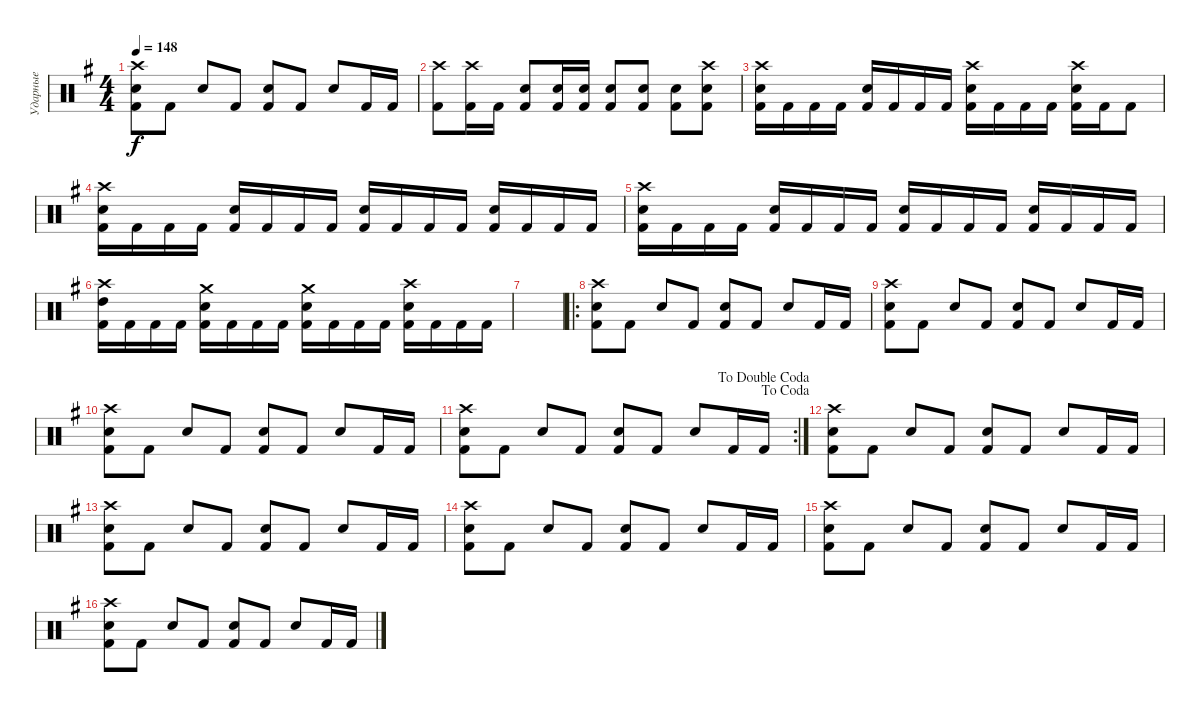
\track ("Ударные" "Ударные") {instrument percussion}
\staff {score}
\articulation defaults
\ts (4 4)
\tempo 148
\clef neutral
\ks g
("Crash high (hit)" "Snare (hit) 2" "Kick (hit) 2").8{dy f} "Kick (hit) 2".8 "Snare (hit) 2".8 "Kick (hit) 2".8 ("Snare (hit) 2" "Kick (hit) 2").8 "Kick (hit) 2".8 "Snare (hit) 2".8 "Kick (hit) 2".16 "Kick (hit) 2".16 |
("Crash high (hit)" "Kick (hit) 2").8 ("Crash high (hit)" "Kick (hit) 2").16 "Kick (hit) 2".16 ("Snare (hit) 2" "Kick (hit) 2").8 ("Snare (hit) 2" "Kick (hit) 2").16 ("Snare (hit) 2" "Kick (hit) 2").16 ("Snare (hit) 2" "Kick (hit) 2").8 ("Snare (hit) 2" "Kick (hit) 2").8 ("Snare (hit) 2" "Kick (hit) 2").8 ("Crash high (hit)" "Snare (hit) 2" "Kick (hit) 2").8 |
("Crash high (hit)" "Snare (hit) 2" "Kick (hit) 2").16 "Kick (hit) 2".16 "Kick (hit) 2".16 "Kick (hit) 2".16 ("Snare (hit) 2" "Kick (hit) 2").16 "Kick (hit) 2".16 "Kick (hit) 2".16 "Kick (hit) 2".16 ("Crash high (hit)" "Snare (hit) 2" "Kick (hit) 2").16 "Kick (hit) 2".16 "Kick (hit) 2".16 "Kick (hit) 2".16 ("Crash high (hit)" "Snare (hit) 2" "Kick (hit) 2").16 "Kick (hit) 2".16 "Kick (hit) 2".8 |
("Crash high (hit)" "Snare (hit) 2" "Kick (hit) 2").16 "Kick (hit) 2".16 "Kick (hit) 2".16 "Kick (hit) 2".16 ("Snare (hit) 2" "Kick (hit) 2").16 "Kick (hit) 2".16 "Kick (hit) 2".16 "Kick (hit) 2".16 ("Snare (hit) 2" "Kick (hit) 2").16 "Kick (hit) 2".16 "Kick (hit) 2".16 "Kick (hit) 2".16 ("Snare (hit) 2" "Kick (hit) 2").16 "Kick (hit) 2".16 "Kick (hit) 2".16 "Kick (hit) 2".16 |
("Crash high (hit)" "Snare (hit) 2" "Kick (hit) 2").16 "Kick (hit) 2".16 "Kick (hit) 2".16 "Kick (hit) 2".16 ("Snare (hit) 2" "Kick (hit) 2").16 "Kick (hit) 2".16 "Kick (hit) 2".16 "Kick (hit) 2".16 ("Snare (hit) 2" "Kick (hit) 2").16 "Kick (hit) 2".16 "Kick (hit) 2".16 "Kick (hit) 2".16 ("Snare (hit) 2" "Kick (hit) 2").16 "Kick (hit) 2".16 "Kick (hit) 2".16 "Kick (hit) 2".16 |
("Crash high (hit)" "High Tom (hit)" "Kick (hit) 2").16 "Kick (hit) 2".16 "Kick (hit) 2".16 "Kick (hit) 2".16 ("Crash medium (hit)" "Snare (hit) 2" "Kick (hit) 2").16 "Kick (hit) 2".16 "Kick (hit) 2".16 "Kick (hit) 2".16 ("Crash medium (hit)" "Snare (hit) 2" "Kick (hit) 2").16 "Kick (hit) 2".16 "Kick (hit) 2".16 "Kick (hit) 2".16 ("Crash high (hit)" "Snare (hit) 2" "Kick (hit) 2").16 "Kick (hit) 2".16 "Kick (hit) 2".16 "Kick (hit) 2".16 |
|
\ro
("Crash high (hit)" "Snare (hit) 2" "Kick (hit) 2").8 "Kick (hit) 2".8 "Snare (hit) 2".8 "Kick (hit) 2".8 ("Snare (hit) 2" "Kick (hit) 2").8 "Kick (hit) 2".8 "Snare (hit) 2".8 "Kick (hit) 2".16 "Kick (hit) 2".16 |
("Crash high (hit)" "Snare (hit) 2" "Kick (hit) 2").8 "Kick (hit) 2".8 "Snare (hit) 2".8 "Kick (hit) 2".8 ("Snare (hit) 2" "Kick (hit) 2").8 "Kick (hit) 2".8 "Snare (hit) 2".8 "Kick (hit) 2".16 "Kick (hit) 2".16 |
("Crash high (hit)" "Snare (hit) 2" "Kick (hit) 2").8 "Kick (hit) 2".8 "Snare (hit) 2".8 "Kick (hit) 2".8 ("Snare (hit) 2" "Kick (hit) 2").8 "Kick (hit) 2".8 "Snare (hit) 2".8 "Kick (hit) 2".16 "Kick (hit) 2".16 |
\rc 2
\jump dacoda
\jump dadoublecoda
("Crash high (hit)" "Snare (hit) 2" "Kick (hit) 2").8 "Kick (hit) 2".8 "Snare (hit) 2".8 "Kick (hit) 2".8 ("Snare (hit) 2" "Kick (hit) 2").8 "Kick (hit) 2".8 "Snare (hit) 2".8 "Kick (hit) 2".16 "Kick (hit) 2".16 |
("Crash high (hit)" "Snare (hit) 2" "Kick (hit) 2").8 "Kick (hit) 2".8 "Snare (hit) 2".8 "Kick (hit) 2".8 ("Snare (hit) 2" "Kick (hit) 2").8 "Kick (hit) 2".8 "Snare (hit) 2".8 "Kick (hit) 2".16 "Kick (hit) 2".16 |
("Crash high (hit)" "Snare (hit) 2" "Kick (hit) 2").8 "Kick (hit) 2".8 "Snare (hit) 2".8 "Kick (hit) 2".8 ("Snare (hit) 2" "Kick (hit) 2").8 "Kick (hit) 2".8 "Snare (hit) 2".8 "Kick (hit) 2".16 "Kick (hit) 2".16 |
("Crash high (hit)" "Snare (hit) 2" "Kick (hit) 2").8 "Kick (hit) 2".8 "Snare (hit) 2".8 "Kick (hit) 2".8 ("Snare (hit) 2" "Kick (hit) 2").8 "Kick (hit) 2".8 "Snare (hit) 2".8 "Kick (hit) 2".16 "Kick (hit) 2".16 |
("Crash high (hit)" "Snare (hit) 2" "Kick (hit) 2").8 "Kick (hit) 2".8 "Snare (hit) 2".8 "Kick (hit) 2".8 ("Snare (hit) 2" "Kick (hit) 2").8 "Kick (hit) 2".8 "Snare (hit) 2".8 "Kick (hit) 2".16 "Kick (hit) 2".16 |
("Crash high (hit)" "Snare (hit) 2" "Kick (hit) 2").8 "Kick (hit) 2".8 "Snare (hit) 2".8 "Kick (hit) 2".8 ("Snare (hit) 2" "Kick (hit) 2").8 "Kick (hit) 2".8 "Snare (hit) 2".8 "Kick (hit) 2".16 "Kick (hit) 2".16
